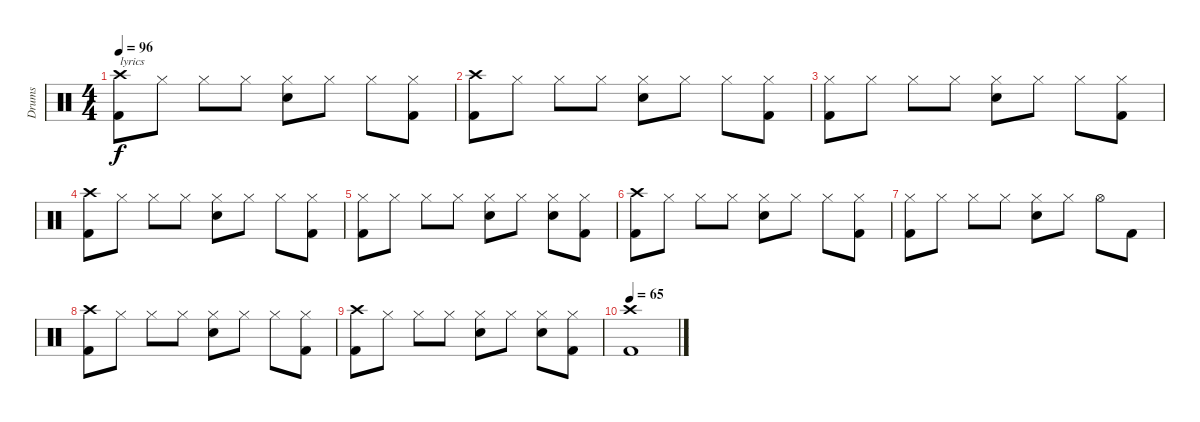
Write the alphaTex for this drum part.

\track ("Drums" "Drums") {instrument percussion}
\staff {score}
\articulation defaults
\ts (4 4)
\tempo 96
\clef neutral
\ks c
("Crash high (hit)" "Kick (hit) 2").8{txt "lyrics" dy f} "Hi-Hat (closed)".8 "Hi-Hat (closed)".8 "Hi-Hat (closed)".8 ("Hi-Hat (closed)" "Snare (hit) 2").8 "Hi-Hat (closed)".8 "Hi-Hat (closed)".8 ("Hi-Hat (closed)" "Kick (hit) 2").8 |
("Crash high (hit)" "Kick (hit) 2").8 "Hi-Hat (closed)".8 "Hi-Hat (closed)".8 "Hi-Hat (closed)".8 ("Hi-Hat (closed)" "Snare (hit) 2").8 "Hi-Hat (closed)".8 "Hi-Hat (closed)".8 ("Hi-Hat (closed)" "Kick (hit) 2").8 |
("Hi-Hat (closed)" "Kick (hit) 2").8 "Hi-Hat (closed)".8 "Hi-Hat (closed)".8 "Hi-Hat (closed)".8 ("Hi-Hat (closed)" "Snare (hit) 2").8 "Hi-Hat (closed)".8 "Hi-Hat (closed)".8 ("Hi-Hat (closed)" "Kick (hit) 2").8 |
("Crash high (hit)" "Kick (hit) 2").8 "Hi-Hat (closed)".8 "Hi-Hat (closed)".8 "Hi-Hat (closed)".8 ("Hi-Hat (closed)" "Snare (hit) 2").8 "Hi-Hat (closed)".8 "Hi-Hat (closed)".8 ("Hi-Hat (closed)" "Kick (hit) 2").8 |
("Hi-Hat (closed)" "Kick (hit) 2").8 "Hi-Hat (closed)".8 "Hi-Hat (closed)".8 "Hi-Hat (closed)".8 ("Hi-Hat (closed)" "Snare (hit) 2").8 "Hi-Hat (closed)".8 ("Hi-Hat (closed)" "Snare (hit) 2").8 ("Hi-Hat (closed)" "Kick (hit) 2").8 |
("Crash high (hit)" "Kick (hit) 2").8 "Hi-Hat (closed)".8 "Hi-Hat (closed)".8 "Hi-Hat (closed)".8 ("Hi-Hat (closed)" "Snare (hit) 2").8 "Hi-Hat (closed)".8 "Hi-Hat (closed)".8 ("Hi-Hat (closed)" "Kick (hit) 2").8 |
("Hi-Hat (closed)" "Kick (hit) 2").8 "Hi-Hat (closed)".8 "Hi-Hat (closed)".8 "Hi-Hat (closed)".8 ("Hi-Hat (closed)" "Snare (hit) 2").8 "Hi-Hat (closed)".8 "Hi-Hat (open)".8 "Kick (hit) 2".8 |
("Crash high (hit)" "Kick (hit) 2").8 "Hi-Hat (closed)".8 "Hi-Hat (closed)".8 "Hi-Hat (closed)".8 ("Hi-Hat (closed)" "Snare (hit) 2").8 "Hi-Hat (closed)".8 "Hi-Hat (closed)".8 ("Hi-Hat (closed)" "Kick (hit) 2").8 |
("Crash high (hit)" "Kick (hit) 2").8 "Hi-Hat (closed)".8 "Hi-Hat (closed)".8 "Hi-Hat (closed)".8 ("Hi-Hat (closed)" "Snare (hit) 2").8 "Hi-Hat (closed)".8 ("Hi-Hat (closed)" "Snare (hit) 2").8 ("Hi-Hat (closed)" "Kick (hit) 2").8 |
\tempo 65
("Crash high (hit)" "Kick (hit) 2").1
